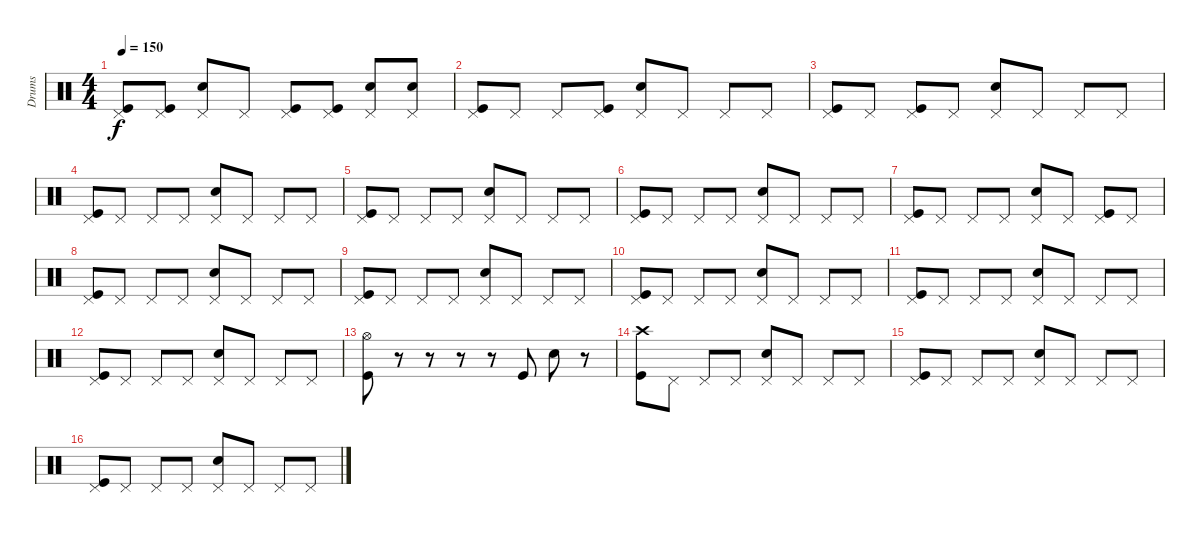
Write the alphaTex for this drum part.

\track ("Drums" "Drums") {instrument percussion}
\staff {score}
\articulation defaults
\ts (4 4)
\tempo 150
\clef neutral
\ks c
("Pedal Hi-Hat (hit)" "Kick (hit)").8{dy f} ("Pedal Hi-Hat (hit)" "Kick (hit)").8 ("Pedal Hi-Hat (hit)" "Snare (hit) 2").8 "Pedal Hi-Hat (hit)".8 ("Pedal Hi-Hat (hit)" "Kick (hit)").8 ("Pedal Hi-Hat (hit)" "Kick (hit)").8 ("Pedal Hi-Hat (hit)" "Snare (hit) 2").8 ("Pedal Hi-Hat (hit)" "Snare (hit) 2").8 |
("Pedal Hi-Hat (hit)" "Kick (hit)").8 "Pedal Hi-Hat (hit)".8 "Pedal Hi-Hat (hit)".8 ("Pedal Hi-Hat (hit)" "Kick (hit)").8 ("Pedal Hi-Hat (hit)" "Snare (hit) 2").8 "Pedal Hi-Hat (hit)".8 "Pedal Hi-Hat (hit)".8 "Pedal Hi-Hat (hit)".8 |
("Pedal Hi-Hat (hit)" "Kick (hit)").8 "Pedal Hi-Hat (hit)".8 ("Pedal Hi-Hat (hit)" "Kick (hit)").8 "Pedal Hi-Hat (hit)".8 ("Pedal Hi-Hat (hit)" "Snare (hit) 2").8 "Pedal Hi-Hat (hit)".8 "Pedal Hi-Hat (hit)".8 "Pedal Hi-Hat (hit)".8 |
("Pedal Hi-Hat (hit)" "Kick (hit)").8 "Pedal Hi-Hat (hit)".8 "Pedal Hi-Hat (hit)".8 "Pedal Hi-Hat (hit)".8 ("Pedal Hi-Hat (hit)" "Snare (hit) 2").8 "Pedal Hi-Hat (hit)".8 "Pedal Hi-Hat (hit)".8 "Pedal Hi-Hat (hit)".8 |
("Pedal Hi-Hat (hit)" "Kick (hit)").8 "Pedal Hi-Hat (hit)".8 "Pedal Hi-Hat (hit)".8 "Pedal Hi-Hat (hit)".8 ("Pedal Hi-Hat (hit)" "Snare (hit) 2").8 "Pedal Hi-Hat (hit)".8 "Pedal Hi-Hat (hit)".8 "Pedal Hi-Hat (hit)".8 |
("Pedal Hi-Hat (hit)" "Kick (hit)").8 "Pedal Hi-Hat (hit)".8 "Pedal Hi-Hat (hit)".8 "Pedal Hi-Hat (hit)".8 ("Pedal Hi-Hat (hit)" "Snare (hit) 2").8 "Pedal Hi-Hat (hit)".8 "Pedal Hi-Hat (hit)".8 "Pedal Hi-Hat (hit)".8 |
("Pedal Hi-Hat (hit)" "Kick (hit)").8 "Pedal Hi-Hat (hit)".8 "Pedal Hi-Hat (hit)".8 "Pedal Hi-Hat (hit)".8 ("Pedal Hi-Hat (hit)" "Snare (hit) 2").8 "Pedal Hi-Hat (hit)".8 ("Pedal Hi-Hat (hit)" "Kick (hit)").8 "Pedal Hi-Hat (hit)".8 |
("Pedal Hi-Hat (hit)" "Kick (hit)").8 "Pedal Hi-Hat (hit)".8 "Pedal Hi-Hat (hit)".8 "Pedal Hi-Hat (hit)".8 ("Pedal Hi-Hat (hit)" "Snare (hit) 2").8 "Pedal Hi-Hat (hit)".8 "Pedal Hi-Hat (hit)".8 "Pedal Hi-Hat (hit)".8 |
("Pedal Hi-Hat (hit)" "Kick (hit)").8 "Pedal Hi-Hat (hit)".8 "Pedal Hi-Hat (hit)".8 "Pedal Hi-Hat (hit)".8 ("Pedal Hi-Hat (hit)" "Snare (hit) 2").8 "Pedal Hi-Hat (hit)".8 "Pedal Hi-Hat (hit)".8 "Pedal Hi-Hat (hit)".8 |
("Pedal Hi-Hat (hit)" "Kick (hit)").8 "Pedal Hi-Hat (hit)".8 "Pedal Hi-Hat (hit)".8 "Pedal Hi-Hat (hit)".8 ("Pedal Hi-Hat (hit)" "Snare (hit) 2").8 "Pedal Hi-Hat (hit)".8 "Pedal Hi-Hat (hit)".8 "Pedal Hi-Hat (hit)".8 |
("Pedal Hi-Hat (hit)" "Kick (hit)").8 "Pedal Hi-Hat (hit)".8 "Pedal Hi-Hat (hit)".8 "Pedal Hi-Hat (hit)".8 ("Pedal Hi-Hat (hit)" "Snare (hit) 2").8 "Pedal Hi-Hat (hit)".8 "Pedal Hi-Hat (hit)".8 "Pedal Hi-Hat (hit)".8 |
("Pedal Hi-Hat (hit)" "Kick (hit)").8 "Pedal Hi-Hat (hit)".8 "Pedal Hi-Hat (hit)".8 "Pedal Hi-Hat (hit)".8 ("Pedal Hi-Hat (hit)" "Snare (hit) 2").8 "Pedal Hi-Hat (hit)".8 "Pedal Hi-Hat (hit)".8 "Pedal Hi-Hat (hit)".8 |
("Hi-Hat (open)" "Kick (hit)").8 r.8 r.8 r.8 r.8 "Kick (hit)".8 "Snare (hit) 2".8 r.8 |
("Crash high (hit)" "Kick (hit)").8 "Pedal Hi-Hat (hit)".8 "Pedal Hi-Hat (hit)".8 "Pedal Hi-Hat (hit)".8 ("Pedal Hi-Hat (hit)" "Snare (hit) 2").8 "Pedal Hi-Hat (hit)".8 "Pedal Hi-Hat (hit)".8 "Pedal Hi-Hat (hit)".8 |
("Pedal Hi-Hat (hit)" "Kick (hit)").8 "Pedal Hi-Hat (hit)".8 "Pedal Hi-Hat (hit)".8 "Pedal Hi-Hat (hit)".8 ("Pedal Hi-Hat (hit)" "Snare (hit) 2").8 "Pedal Hi-Hat (hit)".8 "Pedal Hi-Hat (hit)".8 "Pedal Hi-Hat (hit)".8 |
("Pedal Hi-Hat (hit)" "Kick (hit)").8 "Pedal Hi-Hat (hit)".8 "Pedal Hi-Hat (hit)".8 "Pedal Hi-Hat (hit)".8 ("Pedal Hi-Hat (hit)" "Snare (hit) 2").8 "Pedal Hi-Hat (hit)".8 "Pedal Hi-Hat (hit)".8 "Pedal Hi-Hat (hit)".8
